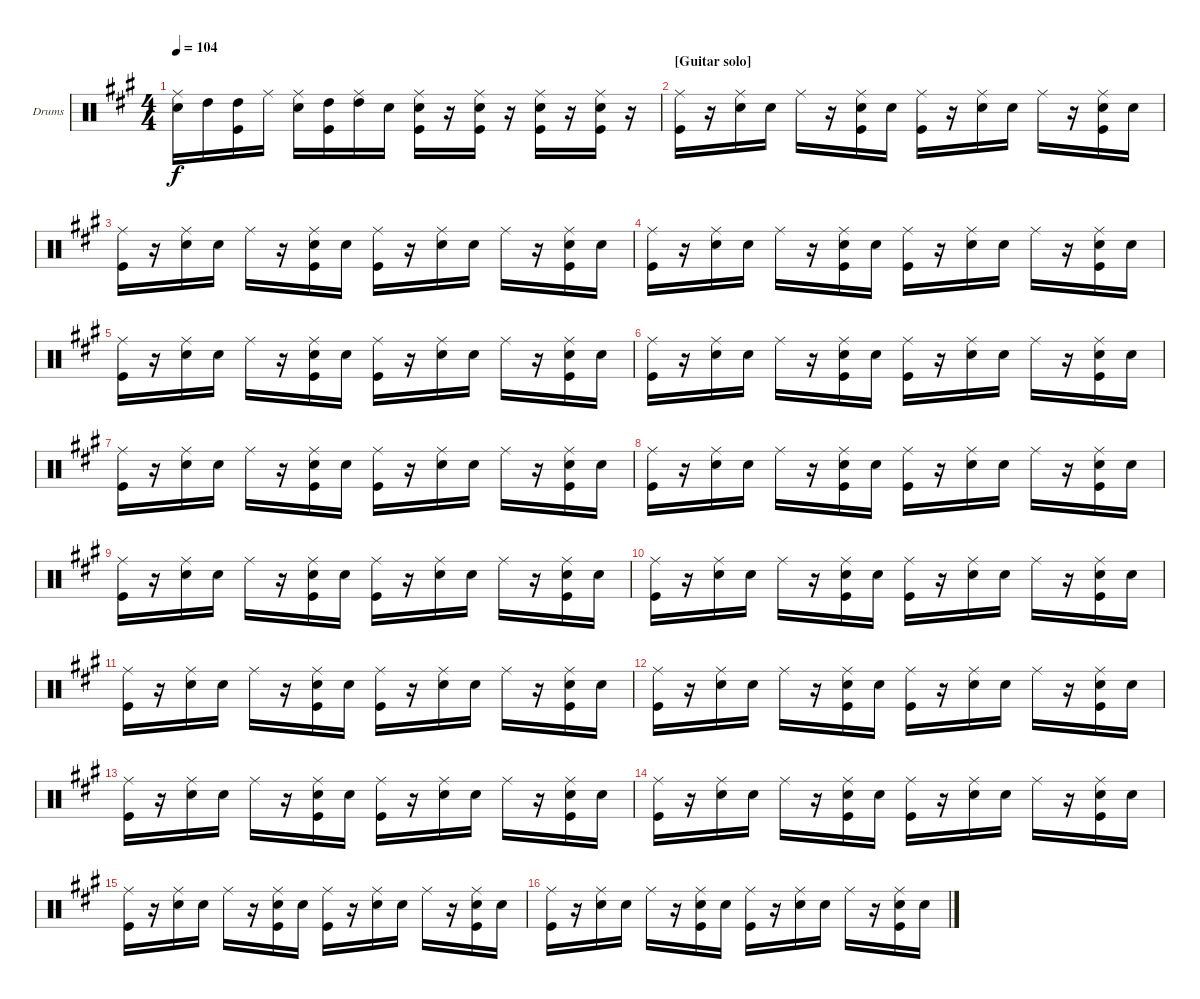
\bracketExtendMode groupsimilarinstruments
\firstSystemTrackNameOrientation horizontal
\otherSystemsTrackNameOrientation horizontal
\track ("Drumkit" "Drums") {instrument percussion}
\staff {score}
\articulation defaults
\ts (4 4)
\tempo 104
\clef neutral
\ks a
("Ride (middle)" "Snare (hit) 2").16{dy f} "High Tom (hit)".16 ("High Tom (hit)" "Kick (hit)").16 "Ride (middle)".16 ("Ride (middle)" "Snare (hit) 2").16 ("High Tom (hit)" "Kick (hit)").16 ("Ride (middle)" "High Tom (hit)").16 "Snare (hit) 2".16 ("Ride (middle)" "Snare (hit) 2" "Kick (hit)").16 r.16 ("Ride (middle)" "Snare (hit) 2" "Kick (hit)").16 r.16 ("Ride (middle)" "Snare (hit) 2" "Kick (hit)").16 r.16 ("Ride (middle)" "Snare (hit) 2" "Kick (hit)").16 r.16 |
\section ("" "[Guitar solo]")
("Ride (middle)" "Kick (hit)").16 r.16 ("Ride (middle)" "Snare (hit) 2").16 "Snare (hit) 2".16 "Ride (middle)".16 r.16 ("Ride (middle)" "Snare (hit) 2" "Kick (hit)").16 "Snare (hit) 2".16 ("Ride (middle)" "Kick (hit)").16 r.16 ("Ride (middle)" "Snare (hit) 2").16 "Snare (hit) 2".16 "Ride (middle)".16 r.16 ("Ride (middle)" "Snare (hit) 2" "Kick (hit)").16 "Snare (hit) 2".16 |
("Ride (middle)" "Kick (hit)").16 r.16 ("Ride (middle)" "Snare (hit) 2").16 "Snare (hit) 2".16 "Ride (middle)".16 r.16 ("Ride (middle)" "Snare (hit) 2" "Kick (hit)").16 "Snare (hit) 2".16 ("Ride (middle)" "Kick (hit)").16 r.16 ("Ride (middle)" "Snare (hit) 2").16 "Snare (hit) 2".16 "Ride (middle)".16 r.16 ("Ride (middle)" "Snare (hit) 2" "Kick (hit)").16 "Snare (hit) 2".16 |
("Ride (middle)" "Kick (hit)").16 r.16 ("Ride (middle)" "Snare (hit) 2").16 "Snare (hit) 2".16 "Ride (middle)".16 r.16 ("Ride (middle)" "Snare (hit) 2" "Kick (hit)").16 "Snare (hit) 2".16 ("Ride (middle)" "Kick (hit)").16 r.16 ("Ride (middle)" "Snare (hit) 2").16 "Snare (hit) 2".16 "Ride (middle)".16 r.16 ("Ride (middle)" "Snare (hit) 2" "Kick (hit)").16 "Snare (hit) 2".16 |
("Ride (middle)" "Kick (hit)").16 r.16 ("Ride (middle)" "Snare (hit) 2").16 "Snare (hit) 2".16 "Ride (middle)".16 r.16 ("Ride (middle)" "Snare (hit) 2" "Kick (hit)").16 "Snare (hit) 2".16 ("Ride (middle)" "Kick (hit)").16 r.16 ("Ride (middle)" "Snare (hit) 2").16 "Snare (hit) 2".16 "Ride (middle)".16 r.16 ("Ride (middle)" "Snare (hit) 2" "Kick (hit)").16 "Snare (hit) 2".16 |
("Ride (middle)" "Kick (hit)").16 r.16 ("Ride (middle)" "Snare (hit) 2").16 "Snare (hit) 2".16 "Ride (middle)".16 r.16 ("Ride (middle)" "Snare (hit) 2" "Kick (hit)").16 "Snare (hit) 2".16 ("Ride (middle)" "Kick (hit)").16 r.16 ("Ride (middle)" "Snare (hit) 2").16 "Snare (hit) 2".16 "Ride (middle)".16 r.16 ("Ride (middle)" "Snare (hit) 2" "Kick (hit)").16 "Snare (hit) 2".16 |
("Ride (middle)" "Kick (hit)").16 r.16 ("Ride (middle)" "Snare (hit) 2").16 "Snare (hit) 2".16 "Ride (middle)".16 r.16 ("Ride (middle)" "Snare (hit) 2" "Kick (hit)").16 "Snare (hit) 2".16 ("Ride (middle)" "Kick (hit)").16 r.16 ("Ride (middle)" "Snare (hit) 2").16 "Snare (hit) 2".16 "Ride (middle)".16 r.16 ("Ride (middle)" "Snare (hit) 2" "Kick (hit)").16 "Snare (hit) 2".16 |
("Ride (middle)" "Kick (hit)").16 r.16 ("Ride (middle)" "Snare (hit) 2").16 "Snare (hit) 2".16 "Ride (middle)".16 r.16 ("Ride (middle)" "Snare (hit) 2" "Kick (hit)").16 "Snare (hit) 2".16 ("Ride (middle)" "Kick (hit)").16 r.16 ("Ride (middle)" "Snare (hit) 2").16 "Snare (hit) 2".16 "Ride (middle)".16 r.16 ("Ride (middle)" "Snare (hit) 2" "Kick (hit)").16 "Snare (hit) 2".16 |
("Ride (middle)" "Kick (hit)").16 r.16 ("Ride (middle)" "Snare (hit) 2").16 "Snare (hit) 2".16 "Ride (middle)".16 r.16 ("Ride (middle)" "Snare (hit) 2" "Kick (hit)").16 "Snare (hit) 2".16 ("Ride (middle)" "Kick (hit)").16 r.16 ("Ride (middle)" "Snare (hit) 2").16 "Snare (hit) 2".16 "Ride (middle)".16 r.16 ("Ride (middle)" "Snare (hit) 2" "Kick (hit)").16 "Snare (hit) 2".16 |
("Ride (middle)" "Kick (hit)").16 r.16 ("Ride (middle)" "Snare (hit) 2").16 "Snare (hit) 2".16 "Ride (middle)".16 r.16 ("Ride (middle)" "Snare (hit) 2" "Kick (hit)").16 "Snare (hit) 2".16 ("Ride (middle)" "Kick (hit)").16 r.16 ("Ride (middle)" "Snare (hit) 2").16 "Snare (hit) 2".16 "Ride (middle)".16 r.16 ("Ride (middle)" "Snare (hit) 2" "Kick (hit)").16 "Snare (hit) 2".16 |
("Ride (middle)" "Kick (hit)").16 r.16 ("Ride (middle)" "Snare (hit) 2").16 "Snare (hit) 2".16 "Ride (middle)".16 r.16 ("Ride (middle)" "Snare (hit) 2" "Kick (hit)").16 "Snare (hit) 2".16 ("Ride (middle)" "Kick (hit)").16 r.16 ("Ride (middle)" "Snare (hit) 2").16 "Snare (hit) 2".16 "Ride (middle)".16 r.16 ("Ride (middle)" "Snare (hit) 2" "Kick (hit)").16 "Snare (hit) 2".16 |
("Ride (middle)" "Kick (hit)").16 r.16 ("Ride (middle)" "Snare (hit) 2").16 "Snare (hit) 2".16 "Ride (middle)".16 r.16 ("Ride (middle)" "Snare (hit) 2" "Kick (hit)").16 "Snare (hit) 2".16 ("Ride (middle)" "Kick (hit)").16 r.16 ("Ride (middle)" "Snare (hit) 2").16 "Snare (hit) 2".16 "Ride (middle)".16 r.16 ("Ride (middle)" "Snare (hit) 2" "Kick (hit)").16 "Snare (hit) 2".16 |
("Ride (middle)" "Kick (hit)").16 r.16 ("Ride (middle)" "Snare (hit) 2").16 "Snare (hit) 2".16 "Ride (middle)".16 r.16 ("Ride (middle)" "Snare (hit) 2" "Kick (hit)").16 "Snare (hit) 2".16 ("Ride (middle)" "Kick (hit)").16 r.16 ("Ride (middle)" "Snare (hit) 2").16 "Snare (hit) 2".16 "Ride (middle)".16 r.16 ("Ride (middle)" "Snare (hit) 2" "Kick (hit)").16 "Snare (hit) 2".16 |
("Ride (middle)" "Kick (hit)").16 r.16 ("Ride (middle)" "Snare (hit) 2").16 "Snare (hit) 2".16 "Ride (middle)".16 r.16 ("Ride (middle)" "Snare (hit) 2" "Kick (hit)").16 "Snare (hit) 2".16 ("Ride (middle)" "Kick (hit)").16 r.16 ("Ride (middle)" "Snare (hit) 2").16 "Snare (hit) 2".16 "Ride (middle)".16 r.16 ("Ride (middle)" "Snare (hit) 2" "Kick (hit)").16 "Snare (hit) 2".16 |
("Ride (middle)" "Kick (hit)").16 r.16 ("Ride (middle)" "Snare (hit) 2").16 "Snare (hit) 2".16 "Ride (middle)".16 r.16 ("Ride (middle)" "Snare (hit) 2" "Kick (hit)").16 "Snare (hit) 2".16 ("Ride (middle)" "Kick (hit)").16 r.16 ("Ride (middle)" "Snare (hit) 2").16 "Snare (hit) 2".16 "Ride (middle)".16 r.16 ("Ride (middle)" "Snare (hit) 2" "Kick (hit)").16 "Snare (hit) 2".16 |
("Ride (middle)" "Kick (hit)").16 r.16 ("Ride (middle)" "Snare (hit) 2").16 "Snare (hit) 2".16 "Ride (middle)".16 r.16 ("Ride (middle)" "Snare (hit) 2" "Kick (hit)").16 "Snare (hit) 2".16 ("Ride (middle)" "Kick (hit)").16 r.16 ("Ride (middle)" "Snare (hit) 2").16 "Snare (hit) 2".16 "Ride (middle)".16 r.16 ("Ride (middle)" "Snare (hit) 2" "Kick (hit)").16 "Snare (hit) 2".16
